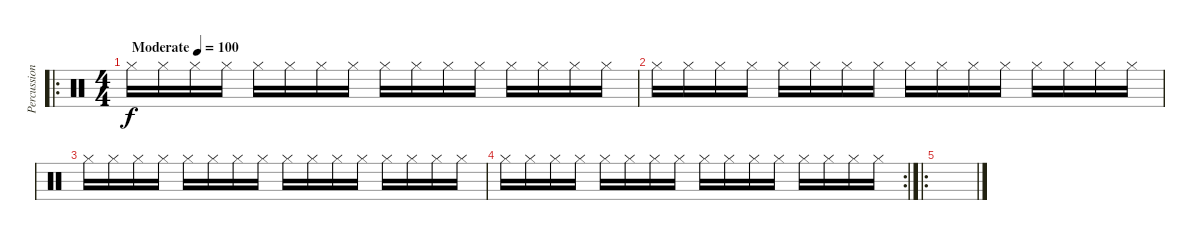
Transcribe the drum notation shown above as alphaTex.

\track ("Percussion" "Percussion") {instrument percussion}
\staff {score}
\articulation defaults
\ro
\ts (4 4)
\tempo (100 "Moderate")
\clef neutral
\ks c "Hi-Hat (closed)".16{dy f} "Hi-Hat (closed)".16 "Hi-Hat (closed)".16 "Hi-Hat (closed)".16 "Hi-Hat (closed)".16 "Hi-Hat (closed)".16 "Hi-Hat (closed)".16 "Hi-Hat (closed)".16 "Hi-Hat (closed)".16 "Hi-Hat (closed)".16 "Hi-Hat (closed)".16 "Hi-Hat (closed)".16 "Hi-Hat (closed)".16 "Hi-Hat (closed)".16 "Hi-Hat (closed)".16 "Hi-Hat (closed)".16
|
"Hi-Hat (closed)".16 "Hi-Hat (closed)".16 "Hi-Hat (closed)".16 "Hi-Hat (closed)".16 "Hi-Hat (closed)".16 "Hi-Hat (closed)".16 "Hi-Hat (closed)".16 "Hi-Hat (closed)".16 "Hi-Hat (closed)".16 "Hi-Hat (closed)".16 "Hi-Hat (closed)".16 "Hi-Hat (closed)".16 "Hi-Hat (closed)".16 "Hi-Hat (closed)".16 "Hi-Hat (closed)".16 "Hi-Hat (closed)".16 |
"Hi-Hat (closed)".16 "Hi-Hat (closed)".16 "Hi-Hat (closed)".16 "Hi-Hat (closed)".16 "Hi-Hat (closed)".16 "Hi-Hat (closed)".16 "Hi-Hat (closed)".16 "Hi-Hat (closed)".16 "Hi-Hat (closed)".16 "Hi-Hat (closed)".16 "Hi-Hat (closed)".16 "Hi-Hat (closed)".16 "Hi-Hat (closed)".16 "Hi-Hat (closed)".16 "Hi-Hat (closed)".16 "Hi-Hat (closed)".16 |
\rc 2 "Hi-Hat (closed)".16 "Hi-Hat (closed)".16 "Hi-Hat (closed)".16 "Hi-Hat (closed)".16 "Hi-Hat (closed)".16 "Hi-Hat (closed)".16 "Hi-Hat (closed)".16 "Hi-Hat (closed)".16 "Hi-Hat (closed)".16 "Hi-Hat (closed)".16 "Hi-Hat (closed)".16 "Hi-Hat (closed)".16 "Hi-Hat (closed)".16 "Hi-Hat (closed)".16 "Hi-Hat (closed)".16 "Hi-Hat (closed)".16
|
\ro
